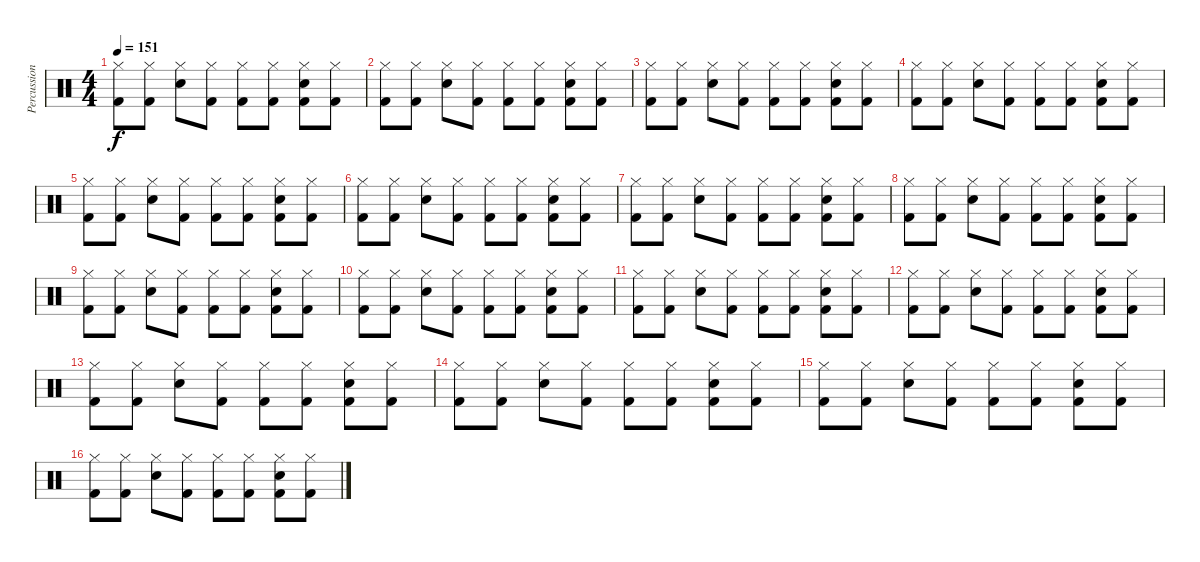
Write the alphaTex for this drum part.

\track ("Percussion" "Percussion") {instrument percussion bank 1}
\staff {score}
\articulation defaults
\ts (4 4)
\tempo 151
\clef neutral
\ks c
("Hi-Hat (closed)" "Kick (hit) 2").8{dy f} ("Hi-Hat (closed)" "Kick (hit) 2").8 ("Snare (hit) 2" "Hi-Hat (closed)").8 ("Hi-Hat (closed)" "Kick (hit) 2").8 ("Hi-Hat (closed)" "Kick (hit) 2").8 ("Hi-Hat (closed)" "Kick (hit) 2").8 ("Snare (hit) 2" "Hi-Hat (closed)" "Kick (hit) 2").8 ("Hi-Hat (closed)" "Kick (hit) 2").8 |
("Hi-Hat (closed)" "Kick (hit) 2").8 ("Hi-Hat (closed)" "Kick (hit) 2").8 ("Snare (hit) 2" "Hi-Hat (closed)").8 ("Hi-Hat (closed)" "Kick (hit) 2").8 ("Hi-Hat (closed)" "Kick (hit) 2").8 ("Hi-Hat (closed)" "Kick (hit) 2").8 ("Snare (hit) 2" "Hi-Hat (closed)" "Kick (hit) 2").8 ("Hi-Hat (closed)" "Kick (hit) 2").8 |
("Hi-Hat (closed)" "Kick (hit) 2").8 ("Hi-Hat (closed)" "Kick (hit) 2").8 ("Snare (hit) 2" "Hi-Hat (closed)").8 ("Hi-Hat (closed)" "Kick (hit) 2").8 ("Hi-Hat (closed)" "Kick (hit) 2").8 ("Hi-Hat (closed)" "Kick (hit) 2").8 ("Snare (hit) 2" "Hi-Hat (closed)" "Kick (hit) 2").8 ("Hi-Hat (closed)" "Kick (hit) 2").8 |
("Hi-Hat (closed)" "Kick (hit) 2").8 ("Hi-Hat (closed)" "Kick (hit) 2").8 ("Snare (hit) 2" "Hi-Hat (closed)").8 ("Hi-Hat (closed)" "Kick (hit) 2").8 ("Hi-Hat (closed)" "Kick (hit) 2").8 ("Hi-Hat (closed)" "Kick (hit) 2").8 ("Snare (hit) 2" "Hi-Hat (closed)" "Kick (hit) 2").8 ("Hi-Hat (closed)" "Kick (hit) 2").8 |
("Hi-Hat (closed)" "Kick (hit) 2").8 ("Hi-Hat (closed)" "Kick (hit) 2").8 ("Snare (hit) 2" "Hi-Hat (closed)").8 ("Hi-Hat (closed)" "Kick (hit) 2").8 ("Hi-Hat (closed)" "Kick (hit) 2").8 ("Hi-Hat (closed)" "Kick (hit) 2").8 ("Snare (hit) 2" "Hi-Hat (closed)" "Kick (hit) 2").8 ("Hi-Hat (closed)" "Kick (hit) 2").8 |
("Hi-Hat (closed)" "Kick (hit) 2").8 ("Hi-Hat (closed)" "Kick (hit) 2").8 ("Snare (hit) 2" "Hi-Hat (closed)").8 ("Hi-Hat (closed)" "Kick (hit) 2").8 ("Hi-Hat (closed)" "Kick (hit) 2").8 ("Hi-Hat (closed)" "Kick (hit) 2").8 ("Snare (hit) 2" "Hi-Hat (closed)" "Kick (hit) 2").8 ("Hi-Hat (closed)" "Kick (hit) 2").8 |
("Hi-Hat (closed)" "Kick (hit) 2").8 ("Hi-Hat (closed)" "Kick (hit) 2").8 ("Snare (hit) 2" "Hi-Hat (closed)").8 ("Hi-Hat (closed)" "Kick (hit) 2").8 ("Hi-Hat (closed)" "Kick (hit) 2").8 ("Hi-Hat (closed)" "Kick (hit) 2").8 ("Snare (hit) 2" "Hi-Hat (closed)" "Kick (hit) 2").8 ("Hi-Hat (closed)" "Kick (hit) 2").8 |
("Hi-Hat (closed)" "Kick (hit) 2").8 ("Hi-Hat (closed)" "Kick (hit) 2").8 ("Snare (hit) 2" "Hi-Hat (closed)").8 ("Hi-Hat (closed)" "Kick (hit) 2").8 ("Hi-Hat (closed)" "Kick (hit) 2").8 ("Hi-Hat (closed)" "Kick (hit) 2").8 ("Snare (hit) 2" "Hi-Hat (closed)" "Kick (hit) 2").8 ("Hi-Hat (closed)" "Kick (hit) 2").8 |
("Hi-Hat (closed)" "Kick (hit) 2").8 ("Hi-Hat (closed)" "Kick (hit) 2").8 ("Snare (hit) 2" "Hi-Hat (closed)").8 ("Hi-Hat (closed)" "Kick (hit) 2").8 ("Hi-Hat (closed)" "Kick (hit) 2").8 ("Hi-Hat (closed)" "Kick (hit) 2").8 ("Snare (hit) 2" "Hi-Hat (closed)" "Kick (hit) 2").8 ("Hi-Hat (closed)" "Kick (hit) 2").8 |
("Hi-Hat (closed)" "Kick (hit) 2").8 ("Hi-Hat (closed)" "Kick (hit) 2").8 ("Snare (hit) 2" "Hi-Hat (closed)").8 ("Hi-Hat (closed)" "Kick (hit) 2").8 ("Hi-Hat (closed)" "Kick (hit) 2").8 ("Hi-Hat (closed)" "Kick (hit) 2").8 ("Snare (hit) 2" "Hi-Hat (closed)" "Kick (hit) 2").8 ("Hi-Hat (closed)" "Kick (hit) 2").8 |
("Hi-Hat (closed)" "Kick (hit) 2").8 ("Hi-Hat (closed)" "Kick (hit) 2").8 ("Snare (hit) 2" "Hi-Hat (closed)").8 ("Hi-Hat (closed)" "Kick (hit) 2").8 ("Hi-Hat (closed)" "Kick (hit) 2").8 ("Hi-Hat (closed)" "Kick (hit) 2").8 ("Snare (hit) 2" "Hi-Hat (closed)" "Kick (hit) 2").8 ("Hi-Hat (closed)" "Kick (hit) 2").8 |
("Hi-Hat (closed)" "Kick (hit) 2").8 ("Hi-Hat (closed)" "Kick (hit) 2").8 ("Snare (hit) 2" "Hi-Hat (closed)").8 ("Hi-Hat (closed)" "Kick (hit) 2").8 ("Hi-Hat (closed)" "Kick (hit) 2").8 ("Hi-Hat (closed)" "Kick (hit) 2").8 ("Snare (hit) 2" "Hi-Hat (closed)" "Kick (hit) 2").8 ("Hi-Hat (closed)" "Kick (hit) 2").8 |
("Hi-Hat (closed)" "Kick (hit) 2").8 ("Hi-Hat (closed)" "Kick (hit) 2").8 ("Snare (hit) 2" "Hi-Hat (closed)").8 ("Hi-Hat (closed)" "Kick (hit) 2").8 ("Hi-Hat (closed)" "Kick (hit) 2").8 ("Hi-Hat (closed)" "Kick (hit) 2").8 ("Snare (hit) 2" "Hi-Hat (closed)" "Kick (hit) 2").8 ("Hi-Hat (closed)" "Kick (hit) 2").8 |
("Hi-Hat (closed)" "Kick (hit) 2").8 ("Hi-Hat (closed)" "Kick (hit) 2").8 ("Snare (hit) 2" "Hi-Hat (closed)").8 ("Hi-Hat (closed)" "Kick (hit) 2").8 ("Hi-Hat (closed)" "Kick (hit) 2").8 ("Hi-Hat (closed)" "Kick (hit) 2").8 ("Snare (hit) 2" "Hi-Hat (closed)" "Kick (hit) 2").8 ("Hi-Hat (closed)" "Kick (hit) 2").8 |
("Hi-Hat (closed)" "Kick (hit) 2").8 ("Hi-Hat (closed)" "Kick (hit) 2").8 ("Snare (hit) 2" "Hi-Hat (closed)").8 ("Hi-Hat (closed)" "Kick (hit) 2").8 ("Hi-Hat (closed)" "Kick (hit) 2").8 ("Hi-Hat (closed)" "Kick (hit) 2").8 ("Snare (hit) 2" "Hi-Hat (closed)" "Kick (hit) 2").8 ("Hi-Hat (closed)" "Kick (hit) 2").8 |
("Hi-Hat (closed)" "Kick (hit) 2").8 ("Hi-Hat (closed)" "Kick (hit) 2").8 ("Snare (hit) 2" "Hi-Hat (closed)").8 ("Hi-Hat (closed)" "Kick (hit) 2").8 ("Hi-Hat (closed)" "Kick (hit) 2").8 ("Hi-Hat (closed)" "Kick (hit) 2").8 ("Snare (hit) 2" "Hi-Hat (closed)" "Kick (hit) 2").8 ("Hi-Hat (closed)" "Kick (hit) 2").8
